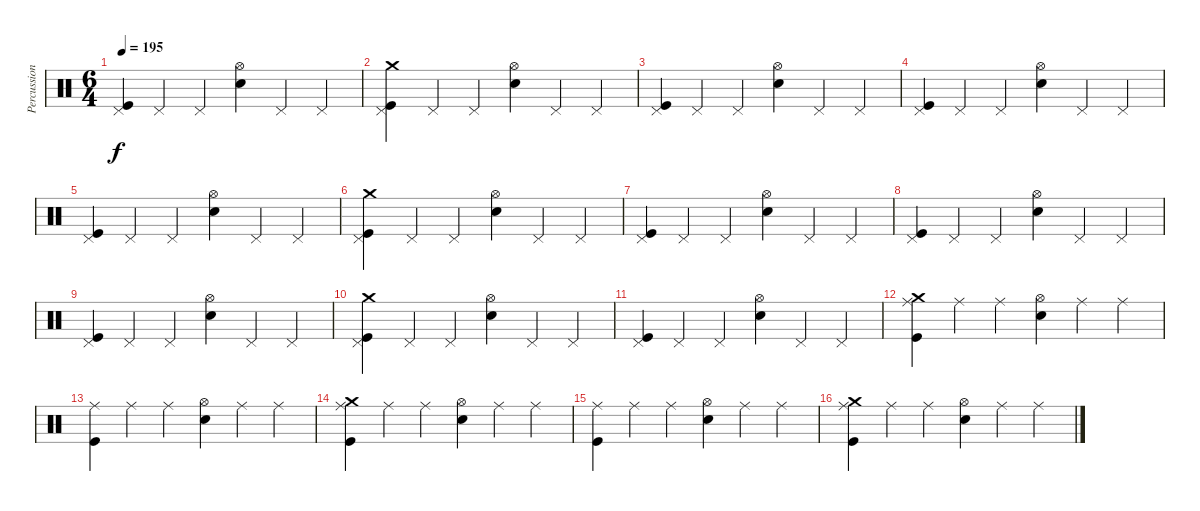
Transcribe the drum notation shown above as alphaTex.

\track ("Percussion" "Percussion") {instrument percussion}
\staff {score}
\articulation defaults
\ts (6 4)
\tempo 195
\clef neutral
\ks c
("Pedal Hi-Hat (hit)" "Kick (hit)").4{dy f} "Pedal Hi-Hat (hit)".4 "Pedal Hi-Hat (hit)".4 ("Hi-Hat (open)" "Electric Snare (hit)").4 "Pedal Hi-Hat (hit)".4 "Pedal Hi-Hat (hit)".4 |
("Crash medium (hit)" "Pedal Hi-Hat (hit)" "Kick (hit)").4 "Pedal Hi-Hat (hit)".4 "Pedal Hi-Hat (hit)".4 ("Hi-Hat (open)" "Electric Snare (hit)").4 "Pedal Hi-Hat (hit)".4 "Pedal Hi-Hat (hit)".4 |
("Pedal Hi-Hat (hit)" "Kick (hit)").4 "Pedal Hi-Hat (hit)".4 "Pedal Hi-Hat (hit)".4 ("Hi-Hat (open)" "Electric Snare (hit)").4 "Pedal Hi-Hat (hit)".4 "Pedal Hi-Hat (hit)".4 |
("Pedal Hi-Hat (hit)" "Kick (hit)").4 "Pedal Hi-Hat (hit)".4 "Pedal Hi-Hat (hit)".4 ("Hi-Hat (open)" "Electric Snare (hit)").4 "Pedal Hi-Hat (hit)".4 "Pedal Hi-Hat (hit)".4 |
("Pedal Hi-Hat (hit)" "Kick (hit)").4 "Pedal Hi-Hat (hit)".4 "Pedal Hi-Hat (hit)".4 ("Hi-Hat (open)" "Electric Snare (hit)").4 "Pedal Hi-Hat (hit)".4 "Pedal Hi-Hat (hit)".4 |
("Crash medium (hit)" "Pedal Hi-Hat (hit)" "Kick (hit)").4 "Pedal Hi-Hat (hit)".4 "Pedal Hi-Hat (hit)".4 ("Hi-Hat (open)" "Electric Snare (hit)").4 "Pedal Hi-Hat (hit)".4 "Pedal Hi-Hat (hit)".4 |
("Pedal Hi-Hat (hit)" "Kick (hit)").4 "Pedal Hi-Hat (hit)".4 "Pedal Hi-Hat (hit)".4 ("Hi-Hat (open)" "Electric Snare (hit)").4 "Pedal Hi-Hat (hit)".4 "Pedal Hi-Hat (hit)".4 |
("Pedal Hi-Hat (hit)" "Kick (hit)").4 "Pedal Hi-Hat (hit)".4 "Pedal Hi-Hat (hit)".4 ("Hi-Hat (open)" "Electric Snare (hit)").4 "Pedal Hi-Hat (hit)".4 "Pedal Hi-Hat (hit)".4 |
("Pedal Hi-Hat (hit)" "Kick (hit)").4 "Pedal Hi-Hat (hit)".4 "Pedal Hi-Hat (hit)".4 ("Hi-Hat (open)" "Electric Snare (hit)").4 "Pedal Hi-Hat (hit)".4 "Pedal Hi-Hat (hit)".4 |
("Crash medium (hit)" "Pedal Hi-Hat (hit)" "Kick (hit)").4 "Pedal Hi-Hat (hit)".4 "Pedal Hi-Hat (hit)".4 ("Hi-Hat (open)" "Electric Snare (hit)").4 "Pedal Hi-Hat (hit)".4 "Pedal Hi-Hat (hit)".4 |
("Pedal Hi-Hat (hit)" "Kick (hit)").4 "Pedal Hi-Hat (hit)".4 "Pedal Hi-Hat (hit)".4 ("Hi-Hat (open)" "Electric Snare (hit)").4 "Pedal Hi-Hat (hit)".4 "Pedal Hi-Hat (hit)".4 |
("Crash medium (hit)" "Ride (middle)" "Kick (hit)").4 "Ride (middle)".4 "Ride (middle)".4 ("Hi-Hat (open)" "Electric Snare (hit)").4 "Ride (middle)".4 "Ride (middle)".4 |
("Ride (middle)" "Kick (hit)").4 "Ride (middle)".4 "Ride (middle)".4 ("Hi-Hat (open)" "Electric Snare (hit)").4 "Ride (middle)".4 "Ride (middle)".4 |
("Crash medium (hit)" "Ride (middle)" "Kick (hit)").4 "Ride (middle)".4 "Ride (middle)".4 ("Hi-Hat (open)" "Electric Snare (hit)").4 "Ride (middle)".4 "Ride (middle)".4 |
("Ride (middle)" "Kick (hit)").4 "Ride (middle)".4 "Ride (middle)".4 ("Hi-Hat (open)" "Electric Snare (hit)").4 "Ride (middle)".4 "Ride (middle)".4 |
("Crash medium (hit)" "Ride (middle)" "Kick (hit)").4 "Ride (middle)".4 "Ride (middle)".4 ("Hi-Hat (open)" "Electric Snare (hit)").4 "Ride (middle)".4 "Ride (middle)".4
